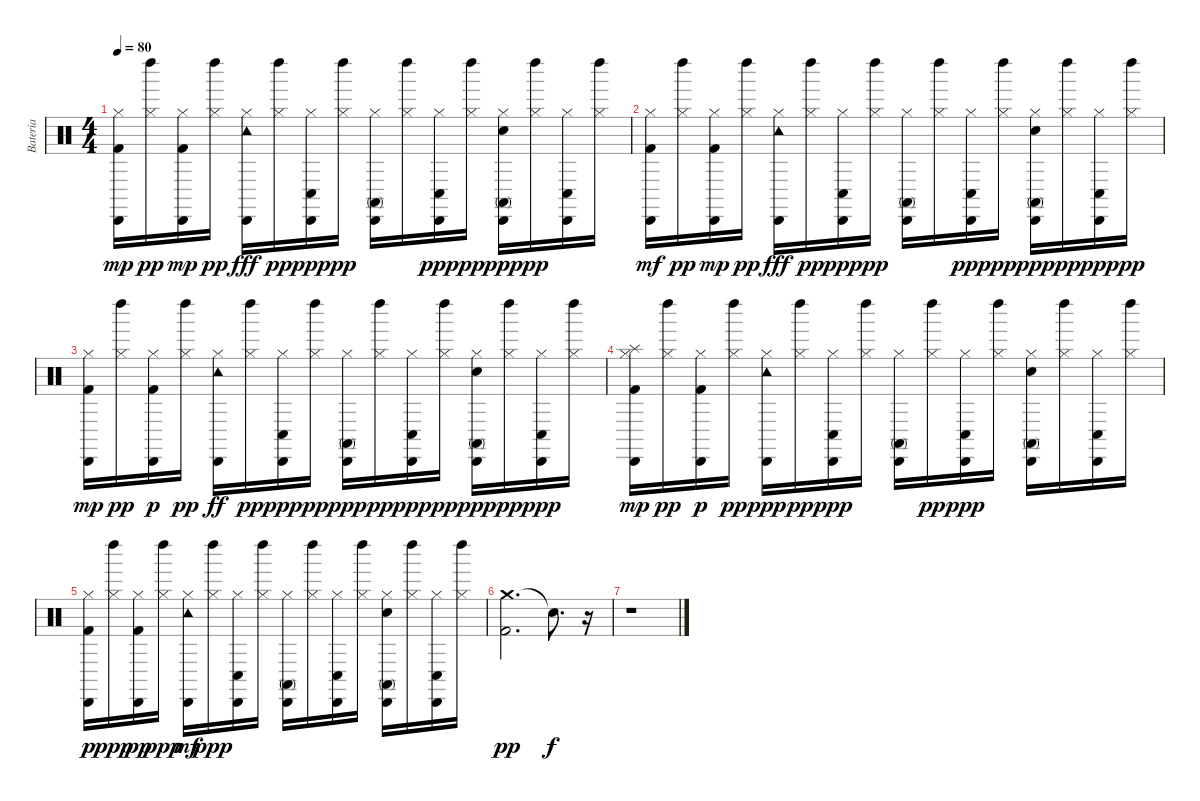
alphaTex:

\track ("Bateria" "Bateria") {instrument percussion}
\staff {score}
\articulation defaults
\ts (4 4)
\tempo 80
\clef neutral
\ks c
("Hi-Hat (closed)" "Cabasa (hit)" "Kick (hit) 2").16{dy mp} ("Hi-Hat (closed)" "Left Maraca (hit)").16{dy pp} ("Hi-Hat (closed)" "Cabasa (hit)" "Kick (hit) 2").16{dy mp} ("Hi-Hat (closed)" "Left Maraca (hit)").16{dy pp} ("Hi-Hat (closed)" "Cabasa (hit)" "Tambourine (hit)").16{dy fff} ("Hi-Hat (closed)" "Left Maraca (hit)").16{dy pp} ("Hi-Hat (closed)" "Conga low (hit)" "Cabasa (hit)").16{dy ppp} ("Hi-Hat (closed)" "Left Maraca (hit)").16{dy pp} ("Hi-Hat (closed)" "Conga high (mute)" "Cabasa (hit)").16 ("Hi-Hat (closed)" "Left Maraca (hit)").16 ("Hi-Hat (closed)" "Conga low (hit)" "Cabasa (hit)").16{dy ppp} ("Hi-Hat (closed)" "Left Maraca (hit)").16{dy pp} ("Electric Snare (hit)" "Hi-Hat (closed)" "Conga high (mute)" "Cabasa (hit)").16{dy ppp} ("Hi-Hat (closed)" "Left Maraca (hit)").16{dy pp} ("Hi-Hat (closed)" "Conga low (hit)" "Cabasa (hit)").16 ("Hi-Hat (closed)" "Left Maraca (hit)").16 |
("Hi-Hat (closed)" "Cabasa (hit)" "Kick (hit) 2").16{dy mf} ("Hi-Hat (closed)" "Left Maraca (hit)").16{dy pp} ("Hi-Hat (closed)" "Cabasa (hit)" "Kick (hit) 2").16{dy mp} ("Hi-Hat (closed)" "Left Maraca (hit)").16{dy pp} ("Hi-Hat (closed)" "Cabasa (hit)" "Tambourine (hit)").16{dy fff} ("Hi-Hat (closed)" "Left Maraca (hit)").16{dy pp} ("Hi-Hat (closed)" "Conga low (hit)" "Cabasa (hit)").16{dy ppp} ("Hi-Hat (closed)" "Left Maraca (hit)").16{dy pp} ("Hi-Hat (closed)" "Conga high (mute)" "Cabasa (hit)").16 ("Hi-Hat (closed)" "Left Maraca (hit)").16 ("Hi-Hat (closed)" "Conga low (hit)" "Cabasa (hit)").16{dy ppp} ("Hi-Hat (closed)" "Left Maraca (hit)").16{dy pp} ("Electric Snare (hit)" "Hi-Hat (closed)" "Conga high (mute)" "Cabasa (hit)").16{dy ppp} ("Hi-Hat (closed)" "Left Maraca (hit)").16{dy pp} ("Hi-Hat (closed)" "Conga low (hit)" "Cabasa (hit)").16{dy ppp} ("Hi-Hat (closed)" "Left Maraca (hit)").16{dy pp} |
("Hi-Hat (closed)" "Cabasa (hit)" "Kick (hit) 2").16{dy mp} ("Hi-Hat (closed)" "Left Maraca (hit)").16{dy pp} ("Hi-Hat (closed)" "Cabasa (hit)" "Kick (hit) 2").16{dy p} ("Hi-Hat (closed)" "Left Maraca (hit)").16{dy pp} ("Hi-Hat (closed)" "Cabasa (hit)" "Tambourine (hit)").16{dy ff} ("Hi-Hat (closed)" "Left Maraca (hit)").16{dy pp} ("Hi-Hat (closed)" "Conga low (hit)" "Cabasa (hit)").16{dy ppp} ("Hi-Hat (closed)" "Left Maraca (hit)").16{dy pp} ("Hi-Hat (closed)" "Conga high (mute)" "Cabasa (hit)").16{dy ppp} ("Hi-Hat (closed)" "Left Maraca (hit)").16{dy pp} ("Hi-Hat (closed)" "Conga low (hit)" "Cabasa (hit)").16{dy ppp} ("Hi-Hat (closed)" "Left Maraca (hit)").16{dy pp} ("Electric Snare (hit)" "Hi-Hat (closed)" "Conga high (mute)" "Cabasa (hit)").16{dy ppp} ("Hi-Hat (closed)" "Left Maraca (hit)").16{dy pp} ("Hi-Hat (closed)" "Conga low (hit)" "Cabasa (hit)").16{dy ppp} ("Hi-Hat (closed)" "Left Maraca (hit)").16 |
("Hi-Hat (closed)" "Splash (hit)" "Cabasa (hit)" "Kick (hit) 2").16{dy mp} ("Hi-Hat (closed)" "Left Maraca (hit)").16{dy pp} ("Hi-Hat (closed)" "Cabasa (hit)" "Kick (hit) 2").16{dy p} ("Hi-Hat (closed)" "Left Maraca (hit)").16{dy pp} ("Hi-Hat (closed)" "Cabasa (hit)" "Tambourine (hit)").16{dy ppp} ("Hi-Hat (closed)" "Left Maraca (hit)").16{dy pp} ("Hi-Hat (closed)" "Conga low (hit)" "Cabasa (hit)").16{dy ppp} ("Hi-Hat (closed)" "Left Maraca (hit)").16 ("Hi-Hat (closed)" "Conga high (mute)" "Cabasa (hit)").16 ("Hi-Hat (closed)" "Left Maraca (hit)").16{dy pp} ("Hi-Hat (closed)" "Conga low (hit)" "Cabasa (hit)").16{dy ppp} ("Hi-Hat (closed)" "Left Maraca (hit)").16 ("Electric Snare (hit)" "Hi-Hat (closed)" "Conga high (mute)" "Cabasa (hit)").16 ("Hi-Hat (closed)" "Left Maraca (hit)").16 ("Hi-Hat (closed)" "Conga low (hit)" "Cabasa (hit)").16 ("Hi-Hat (closed)" "Left Maraca (hit)").16 |
("Hi-Hat (closed)" "Cabasa (hit)" "Kick (hit) 2").16{dy p} ("Hi-Hat (closed)" "Left Maraca (hit)").16{dy ppp} ("Hi-Hat (closed)" "Cabasa (hit)" "Kick (hit) 2").16{dy pp} ("Hi-Hat (closed)" "Left Maraca (hit)").16{dy ppp} ("Hi-Hat (closed)" "Cabasa (hit)" "Tambourine (hit)").16{dy mf} ("Hi-Hat (closed)" "Left Maraca (hit)").16{dy ppp} ("Hi-Hat (closed)" "Conga low (hit)" "Cabasa (hit)").16 ("Hi-Hat (closed)" "Left Maraca (hit)").16 ("Hi-Hat (closed)" "Conga high (mute)" "Cabasa (hit)").16 ("Hi-Hat (closed)" "Left Maraca (hit)").16 ("Hi-Hat (closed)" "Conga low (hit)" "Cabasa (hit)").16 ("Hi-Hat (closed)" "Left Maraca (hit)").16 ("Electric Snare (hit)" "Hi-Hat (closed)" "Conga high (mute)" "Cabasa (hit)").16 ("Hi-Hat (closed)" "Left Maraca (hit)").16 ("Hi-Hat (closed)" "Conga low (hit)" "Cabasa (hit)").16 ("Hi-Hat (closed)" "Left Maraca (hit)").16 |
("Crash medium (hit)" "Kick (hit) 2").2{d dy pp} "Snare (hit)"{t}.8{d dy f} r.16 |
r.1
